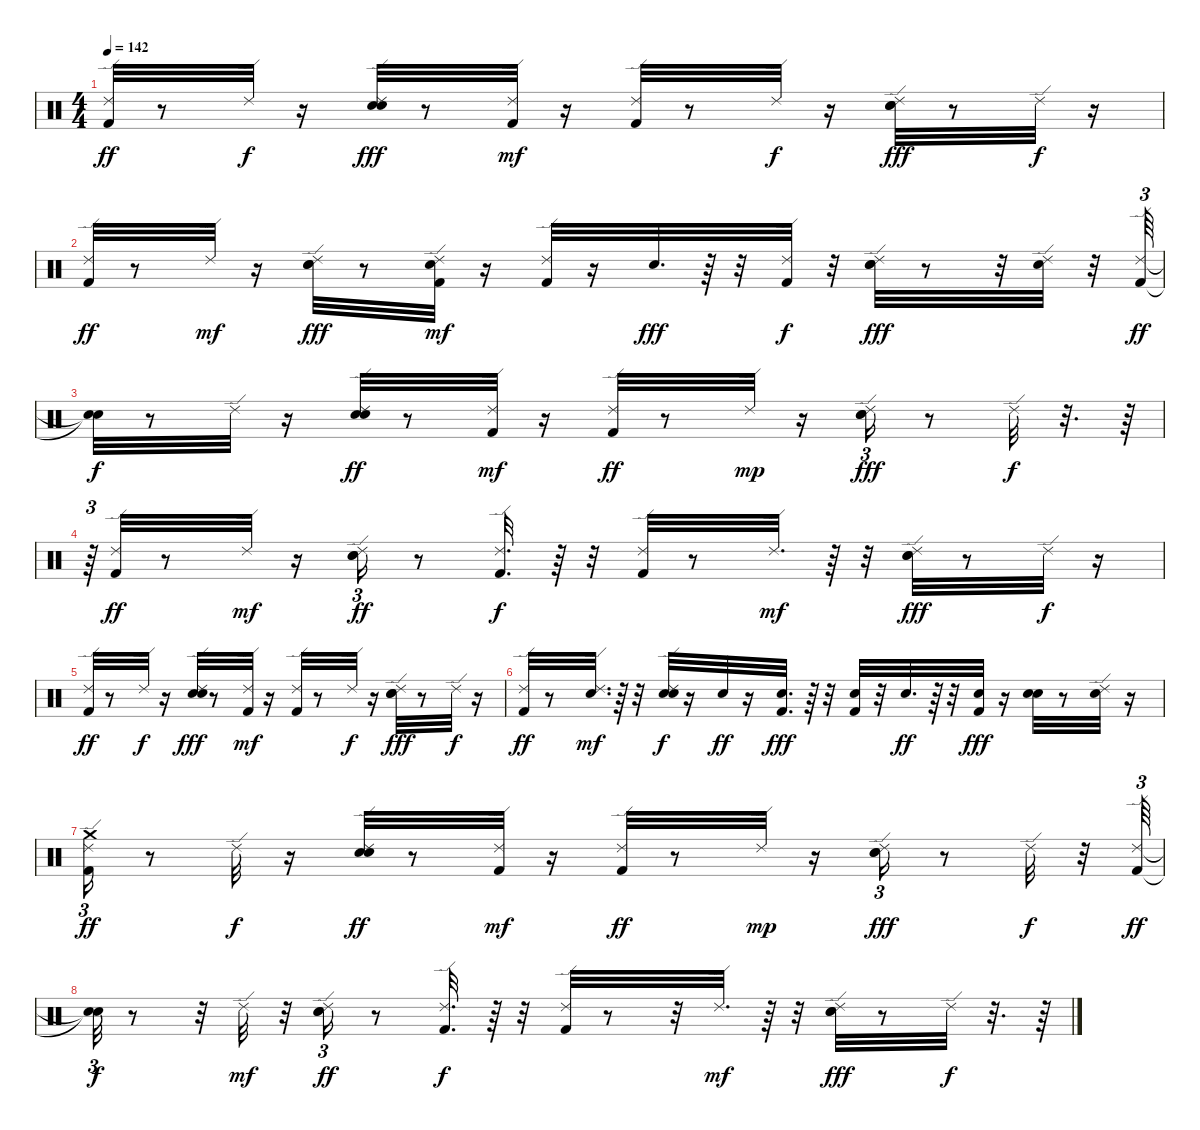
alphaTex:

\track "" {instrument percussion}
\staff {score}
\articulation defaults
\ts (4 4)
\tempo 142
\clef neutral
\ks c
("Ride (edge) 2" "Kick (hit) 2").32{dy ff} r.8 "Ride (edge) 2".32{dy f} r.16 ("Electric Snare (hit)" "Hand Clap (hit)" "Ride (edge) 2").32{dy fff} r.8 ("Kick (hit) 2" "Ride (edge) 2").32{dy mf} r.16 ("Kick (hit) 2" "Ride (edge) 2").32 r.8 "Ride (edge) 2".32{dy f} r.16 ("Electric Snare (hit)" "Hand Clap (hit)" "Ride (edge) 2").32{dy fff} r.8 "Ride (edge) 2".32{dy f} r.16 |
("Kick (hit) 2" "Ride (edge) 2").32{dy ff} r.8 "Ride (edge) 2".32{dy mf} r.16 ("Hand Clap (hit)" "Electric Snare (hit)" "Ride (edge) 2").32{dy fff} r.8 ("Kick (hit) 2" "Electric Snare (hit)" "Ride (edge) 2").32{dy mf} r.16 ("Kick (hit) 2" "Ride (edge) 2").32 r.16 "Electric Snare (hit)".32{d dy fff} r.64 r.32 ("Ride (edge) 2" "Kick (hit) 2").32{dy f} r.32 ("Electric Snare (hit)" "Hand Clap (hit)" "Ride (edge) 2").32{dy fff} r.8 r.32 ("Electric Snare (hit)" "Ride (edge) 2").32 r.32 ("Ride (edge) 2" "Kick (hit) 2").64{tu (3 2) dy ff} |
("Snare (hit)"{t} "Snare (hit)"{t}).32{dy f} r.8 "Ride (edge) 2".32 r.16 ("Hand Clap (hit)" "Electric Snare (hit)" "Ride (edge) 2").32{dy ff} r.8 ("Kick (hit) 2" "Ride (edge) 2").32{dy mf} r.16 ("Kick (hit) 2" "Ride (edge) 2").32{dy ff} r.8 "Ride (edge) 2".32{dy mp} r.16 ("Hand Clap (hit)" "Electric Snare (hit)" "Ride (edge) 2").16{tu (3 2) dy fff} r.8 "Ride (edge) 2".32{dy f} r.32{d} r.64 |
r.64{tu (3 2)} ("Kick (hit) 2" "Ride (edge) 2").32{dy ff} r.8 "Ride (edge) 2".32{dy mf} r.16 ("Hand Clap (hit)" "Electric Snare (hit)" "Ride (edge) 2").16{tu (3 2) dy ff} r.8 ("Kick (hit) 2" "Ride (edge) 2").32{d dy f} r.64 r.32 ("Kick (hit) 2" "Ride (edge) 2").32 r.8 "Ride (edge) 2".32{d dy mf} r.64 r.32 ("Hand Clap (hit)" "Electric Snare (hit)" "Ride (edge) 2").32{dy fff} r.8 "Ride (edge) 2".32{dy f} r.16 |
("Ride (edge) 2" "Kick (hit) 2").32{dy ff} r.8 "Ride (edge) 2".32{dy f} r.16 ("Electric Snare (hit)" "Hand Clap (hit)" "Ride (edge) 2").32{dy fff} r.8 ("Kick (hit) 2" "Ride (edge) 2").32{dy mf} r.16 ("Kick (hit) 2" "Ride (edge) 2").32 r.8 "Ride (edge) 2".32{dy f} r.16 ("Electric Snare (hit)" "Hand Clap (hit)" "Ride (edge) 2").32{dy fff} r.8 "Ride (edge) 2".32{dy f} r.16 |
("Kick (hit) 2" "Ride (edge) 2").32{dy ff} r.8 ("Electric Snare (hit)" "Ride (edge) 2").32{d dy mf} r.64 r.32 ("Electric Snare (hit)" "Hand Clap (hit)" "Ride (edge) 2").32{dy f} r.16 "Electric Snare (hit)".32{dy ff} r.16 ("Kick (hit) 2" "Electric Snare (hit)").32{d dy fff} r.64 r.32 ("Electric Snare (hit)" "Kick (hit) 2").32 r.32 "Electric Snare (hit)".32{d dy ff} r.64 r.32 ("Electric Snare (hit)" "Kick (hit) 2").32{dy fff} r.16 ("Hand Clap (hit)" "Electric Snare (hit)").32 r.8 ("Ride (edge) 2" "Electric Snare (hit)").32 r.16 |
("Crash medium (hit)" "Ride (edge) 2" "Kick (hit) 2").16{tu (3 2) dy ff} r.8 "Ride (edge) 2".32{dy f} r.16 ("Hand Clap (hit)" "Electric Snare (hit)" "Ride (edge) 2").32{dy ff} r.8 ("Kick (hit) 2" "Ride (edge) 2").32{dy mf} r.16 ("Kick (hit) 2" "Ride (edge) 2").32{dy ff} r.8 "Ride (edge) 2".32{dy mp} r.16 ("Hand Clap (hit)" "Electric Snare (hit)" "Ride (edge) 2").16{tu (3 2) dy fff} r.8 "Ride (edge) 2".32{dy f} r.32 ("Kick (hit) 2" "Ride (edge) 2").64{tu (3 2) dy ff} |
("Snare (hit)"{t} "Snare (hit)"{t}).32{tu (3 2) dy f} r.8 r.32 "Ride (edge) 2".32{dy mf} r.32 ("Hand Clap (hit)" "Electric Snare (hit)" "Ride (edge) 2").16{tu (3 2) dy ff} r.8 ("Kick (hit) 2" "Ride (edge) 2").32{d dy f} r.64 r.32 ("Kick (hit) 2" "Ride (edge) 2").32 r.8 r.32 "Ride (edge) 2".32{d dy mf} r.64 r.32 ("Hand Clap (hit)" "Electric Snare (hit)" "Ride (edge) 2").32{dy fff} r.8 "Ride (edge) 2".32{dy f} r.32{d} r.64
